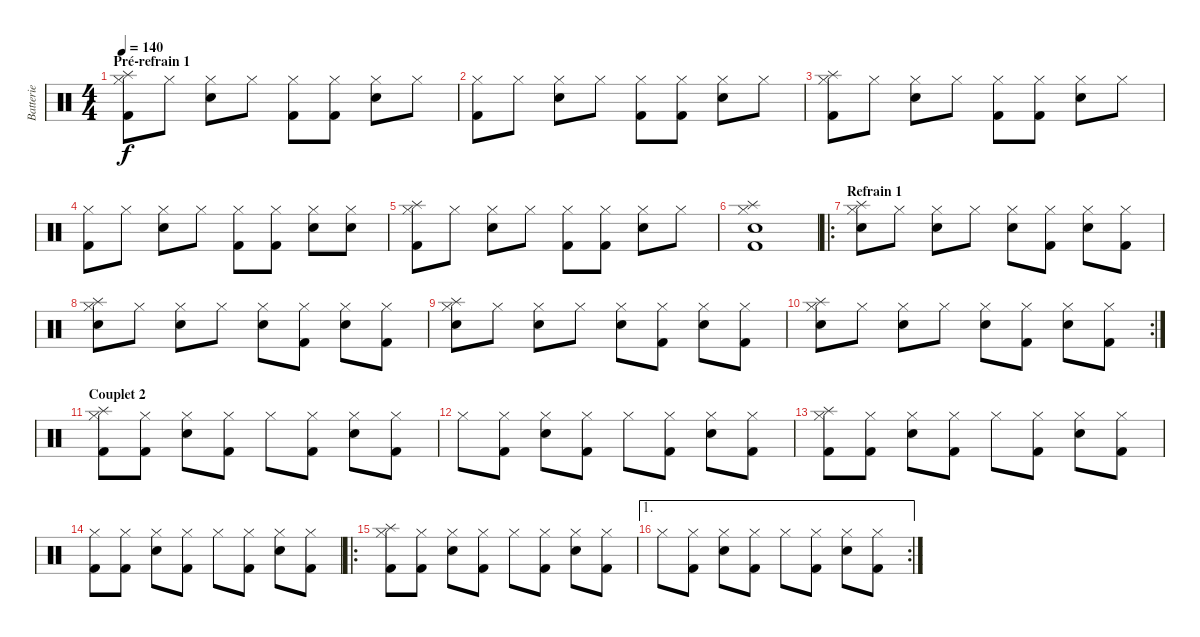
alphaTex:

\track ("Batterie" "Batterie") {instrument percussion}
\staff {score}
\articulation defaults
\ts (4 4)
\section ("" "Pré-refrain 1")
\tempo 140
\clef neutral
\ks c
("Splash (hit)" "Hi-Hat (closed)" "Kick (hit) 2").8{dy f} "Hi-Hat (closed)".8 ("Hi-Hat (closed)" "Snare (hit) 2").8 "Hi-Hat (closed)".8 ("Hi-Hat (closed)" "Kick (hit) 2").8 ("Hi-Hat (closed)" "Kick (hit) 2").8 ("Hi-Hat (closed)" "Snare (hit) 2").8 "Hi-Hat (closed)".8 |
("Hi-Hat (closed)" "Kick (hit) 2").8 "Hi-Hat (closed)".8 ("Hi-Hat (closed)" "Snare (hit) 2").8 "Hi-Hat (closed)".8 ("Hi-Hat (closed)" "Kick (hit) 2").8 ("Hi-Hat (closed)" "Kick (hit) 2").8 ("Hi-Hat (closed)" "Snare (hit) 2").8 "Hi-Hat (closed)".8 |
("Splash (hit)" "Hi-Hat (closed)" "Kick (hit) 2").8 "Hi-Hat (closed)".8 ("Hi-Hat (closed)" "Snare (hit) 2").8 "Hi-Hat (closed)".8 ("Hi-Hat (closed)" "Kick (hit) 2").8 ("Hi-Hat (closed)" "Kick (hit) 2").8 ("Hi-Hat (closed)" "Snare (hit) 2").8 "Hi-Hat (closed)".8 |
("Hi-Hat (closed)" "Kick (hit) 2").8 "Hi-Hat (closed)".8 ("Hi-Hat (closed)" "Snare (hit) 2").8 "Hi-Hat (closed)".8 ("Hi-Hat (closed)" "Kick (hit) 2").8 ("Hi-Hat (closed)" "Kick (hit) 2").8 ("Hi-Hat (closed)" "Snare (hit) 2").8 ("Hi-Hat (closed)" "Snare (hit) 2").8 |
("Splash (hit)" "Hi-Hat (closed)" "Kick (hit) 2").8 "Hi-Hat (closed)".8 ("Hi-Hat (closed)" "Snare (hit) 2").8 "Hi-Hat (closed)".8 ("Hi-Hat (closed)" "Kick (hit) 2").8 ("Hi-Hat (closed)" "Kick (hit) 2").8 ("Hi-Hat (closed)" "Snare (hit) 2").8 "Hi-Hat (closed)".8 |
("Splash (hit)" "Hi-Hat (closed)" "Snare (hit) 2" "Kick (hit) 2").1 |
\ro
\section ("" "Refrain 1")
("Splash (hit)" "Hi-Hat (closed)" "Snare (hit) 2").8 "Hi-Hat (closed)".8 ("Hi-Hat (closed)" "Snare (hit) 2").8 "Hi-Hat (closed)".8 ("Hi-Hat (closed)" "Snare (hit) 2").8 ("Hi-Hat (closed)" "Kick (hit) 2").8 ("Hi-Hat (closed)" "Snare (hit) 2").8 ("Hi-Hat (closed)" "Kick (hit) 2").8 |
("Splash (hit)" "Hi-Hat (closed)" "Snare (hit) 2").8 "Hi-Hat (closed)".8 ("Hi-Hat (closed)" "Snare (hit) 2").8 "Hi-Hat (closed)".8 ("Hi-Hat (closed)" "Snare (hit) 2").8 ("Hi-Hat (closed)" "Kick (hit) 2").8 ("Hi-Hat (closed)" "Snare (hit) 2").8 ("Hi-Hat (closed)" "Kick (hit) 2").8 |
("Splash (hit)" "Hi-Hat (closed)" "Snare (hit) 2").8 "Hi-Hat (closed)".8 ("Hi-Hat (closed)" "Snare (hit) 2").8 "Hi-Hat (closed)".8 ("Hi-Hat (closed)" "Snare (hit) 2").8 ("Hi-Hat (closed)" "Kick (hit) 2").8 ("Hi-Hat (closed)" "Snare (hit) 2").8 ("Hi-Hat (closed)" "Kick (hit) 2").8 |
\rc 2
("Splash (hit)" "Hi-Hat (closed)" "Snare (hit) 2").8 "Hi-Hat (closed)".8 ("Hi-Hat (closed)" "Snare (hit) 2").8 "Hi-Hat (closed)".8 ("Hi-Hat (closed)" "Snare (hit) 2").8 ("Hi-Hat (closed)" "Kick (hit) 2").8 ("Hi-Hat (closed)" "Snare (hit) 2").8 ("Hi-Hat (closed)" "Kick (hit) 2").8 |
\section ("" "Couplet 2")
("Splash (hit)" "Hi-Hat (closed)" "Kick (hit) 2").8 ("Hi-Hat (closed)" "Kick (hit) 2").8 ("Hi-Hat (closed)" "Snare (hit) 2").8 ("Hi-Hat (closed)" "Kick (hit) 2").8 "Hi-Hat (closed)".8 ("Hi-Hat (closed)" "Kick (hit) 2").8 ("Hi-Hat (closed)" "Snare (hit) 2").8 ("Hi-Hat (closed)" "Kick (hit) 2").8 |
"Hi-Hat (closed)".8 ("Hi-Hat (closed)" "Kick (hit) 2").8 ("Hi-Hat (closed)" "Snare (hit) 2").8 ("Hi-Hat (closed)" "Kick (hit) 2").8 "Hi-Hat (closed)".8 ("Hi-Hat (closed)" "Kick (hit) 2").8 ("Hi-Hat (closed)" "Snare (hit) 2").8 ("Hi-Hat (closed)" "Kick (hit) 2").8 |
("Splash (hit)" "Hi-Hat (closed)" "Kick (hit) 2").8 ("Hi-Hat (closed)" "Kick (hit) 2").8 ("Hi-Hat (closed)" "Snare (hit) 2").8 ("Hi-Hat (closed)" "Kick (hit) 2").8 "Hi-Hat (closed)".8 ("Hi-Hat (closed)" "Kick (hit) 2").8 ("Hi-Hat (closed)" "Snare (hit) 2").8 ("Hi-Hat (closed)" "Kick (hit) 2").8 |
("Hi-Hat (closed)" "Kick (hit) 2").8 ("Hi-Hat (closed)" "Kick (hit) 2").8 ("Hi-Hat (closed)" "Snare (hit) 2").8 ("Hi-Hat (closed)" "Kick (hit) 2").8 "Hi-Hat (closed)".8 ("Hi-Hat (closed)" "Kick (hit) 2").8 ("Hi-Hat (closed)" "Snare (hit) 2").8 ("Hi-Hat (closed)" "Kick (hit) 2").8 |
\ro
("Splash (hit)" "Hi-Hat (closed)" "Kick (hit) 2").8 ("Hi-Hat (closed)" "Kick (hit) 2").8 ("Hi-Hat (closed)" "Snare (hit) 2").8 ("Hi-Hat (closed)" "Kick (hit) 2").8 "Hi-Hat (closed)".8 ("Hi-Hat (closed)" "Kick (hit) 2").8 ("Hi-Hat (closed)" "Snare (hit) 2").8 ("Hi-Hat (closed)" "Kick (hit) 2").8 |
\ae 1
\rc 2 "Hi-Hat (closed)".8
("Hi-Hat (closed)" "Kick (hit) 2").8 ("Hi-Hat (closed)" "Snare (hit) 2").8 ("Hi-Hat (closed)" "Kick (hit) 2").8 "Hi-Hat (closed)".8 ("Hi-Hat (closed)" "Kick (hit) 2").8 ("Hi-Hat (closed)" "Snare (hit) 2").8 ("Hi-Hat (closed)" "Kick (hit) 2").8
